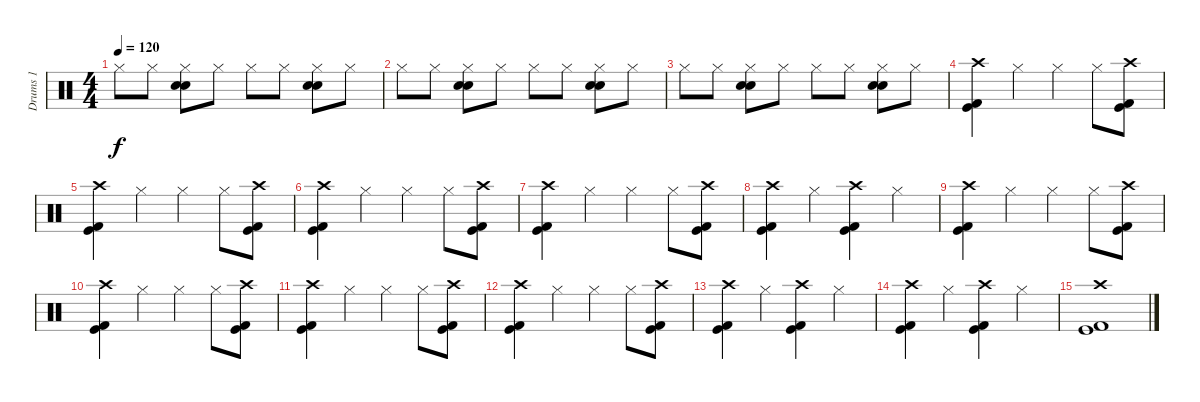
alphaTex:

\track ("Drums 1" "Drums 1") {instrument percussion}
\staff {score}
\articulation defaults
\ts (4 4)
\tempo 120
\clef neutral
\ks c "Hi-Hat (closed)".8{dy f} "Hi-Hat (closed)".8
("Hi-Hat (closed)" "Electric Snare (hit)" "Snare (hit) 2").8 "Hi-Hat (closed)".8 "Hi-Hat (closed)".8 "Hi-Hat (closed)".8 ("Hi-Hat (closed)" "Electric Snare (hit)" "Snare (hit) 2").8 "Hi-Hat (closed)".8 |
"Hi-Hat (closed)".8 "Hi-Hat (closed)".8 ("Hi-Hat (closed)" "Electric Snare (hit)" "Snare (hit) 2").8 "Hi-Hat (closed)".8 "Hi-Hat (closed)".8 "Hi-Hat (closed)".8 ("Hi-Hat (closed)" "Electric Snare (hit)" "Snare (hit) 2").8 "Hi-Hat (closed)".8 |
"Hi-Hat (closed)".8 "Hi-Hat (closed)".8 ("Hi-Hat (closed)" "Electric Snare (hit)" "Snare (hit) 2").8 "Hi-Hat (closed)".8 "Hi-Hat (closed)".8 "Hi-Hat (closed)".8 ("Hi-Hat (closed)" "Electric Snare (hit)" "Snare (hit) 2").8 "Hi-Hat (closed)".8 |
("Kick (hit) 2" "Kick (hit)" "Crash high (hit)").4 "Hi-Hat (closed)".4 "Hi-Hat (closed)".4 "Hi-Hat (closed)".8 ("Kick (hit) 2" "Kick (hit)" "Crash high (hit)").8 |
("Kick (hit) 2" "Kick (hit)" "Crash high (hit)").4 "Hi-Hat (closed)".4 "Hi-Hat (closed)".4 "Hi-Hat (closed)".8 ("Kick (hit) 2" "Kick (hit)" "Crash high (hit)").8 |
("Kick (hit) 2" "Kick (hit)" "Crash high (hit)").4 "Hi-Hat (closed)".4 "Hi-Hat (closed)".4 "Hi-Hat (closed)".8 ("Kick (hit) 2" "Kick (hit)" "Crash high (hit)").8 |
("Kick (hit) 2" "Kick (hit)" "Crash high (hit)").4 "Hi-Hat (closed)".4 "Hi-Hat (closed)".4 "Hi-Hat (closed)".8 ("Kick (hit) 2" "Kick (hit)" "Crash high (hit)").8 |
("Kick (hit) 2" "Kick (hit)" "Crash high (hit)").4 "Hi-Hat (closed)".4 ("Kick (hit) 2" "Kick (hit)" "Crash high (hit)").4 "Hi-Hat (closed)".4 |
("Kick (hit) 2" "Kick (hit)" "Crash high (hit)").4 "Hi-Hat (closed)".4 "Hi-Hat (closed)".4 "Hi-Hat (closed)".8 ("Kick (hit) 2" "Kick (hit)" "Crash high (hit)").8 |
("Kick (hit) 2" "Kick (hit)" "Crash high (hit)").4 "Hi-Hat (closed)".4 "Hi-Hat (closed)".4 "Hi-Hat (closed)".8 ("Kick (hit) 2" "Kick (hit)" "Crash high (hit)").8 |
("Kick (hit) 2" "Kick (hit)" "Crash high (hit)").4 "Hi-Hat (closed)".4 "Hi-Hat (closed)".4 "Hi-Hat (closed)".8 ("Kick (hit) 2" "Kick (hit)" "Crash high (hit)").8 |
("Kick (hit) 2" "Kick (hit)" "Crash high (hit)").4 "Hi-Hat (closed)".4 "Hi-Hat (closed)".4 "Hi-Hat (closed)".8 ("Kick (hit) 2" "Kick (hit)" "Crash high (hit)").8 |
("Kick (hit) 2" "Kick (hit)" "Crash high (hit)").4 "Hi-Hat (closed)".4 ("Kick (hit) 2" "Kick (hit)" "Crash high (hit)").4 "Hi-Hat (closed)".4 |
("Kick (hit) 2" "Kick (hit)" "Crash high (hit)").4 "Hi-Hat (closed)".4 ("Kick (hit) 2" "Kick (hit)" "Crash high (hit)").4 "Hi-Hat (closed)".4 |
("Kick (hit) 2" "Kick (hit)" "Crash high (hit)").1
